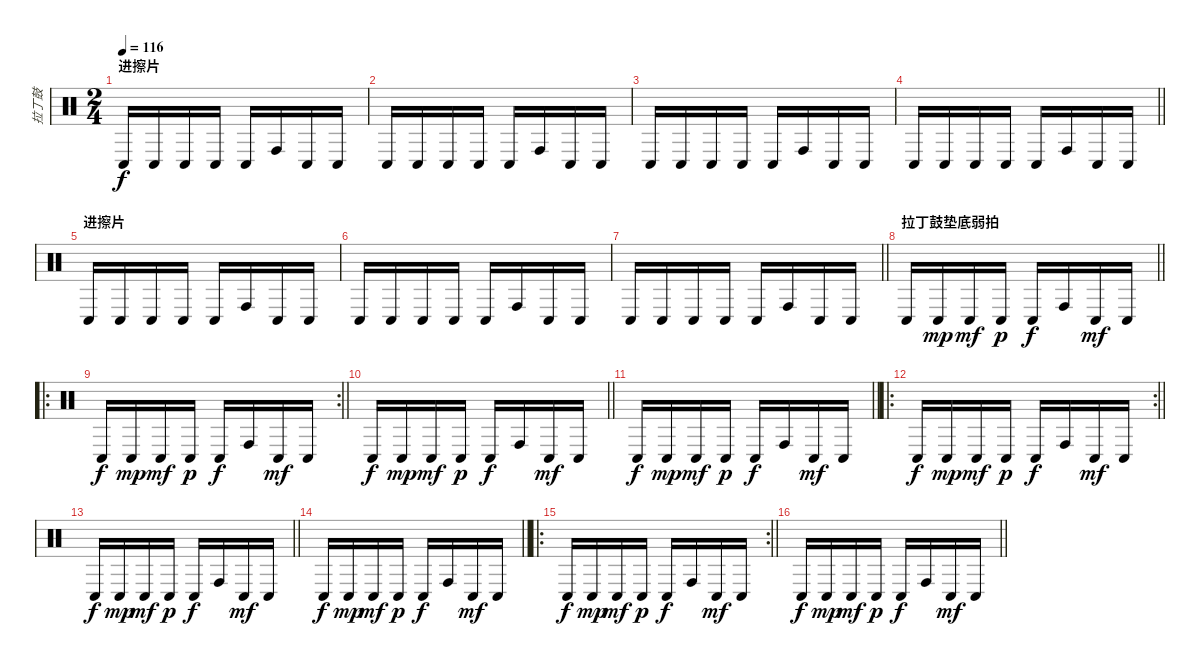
\track ("拉丁鼓" "拉丁鼓") {instrument percussion}
\staff {score}
\articulation defaults
\ts (2 4)
\section ("" "进擦片")
\tempo 116
\clef neutral
\ks c "Conga low (hit)".16{dy f} "Conga low (hit)".16 "Conga low (hit)".16 "Conga low (hit)".16 "Conga low (hit)".16 "Conga high (hit)".16 "Conga low (hit)".16 "Conga low (hit)".16
|
"Conga low (hit)".16 "Conga low (hit)".16 "Conga low (hit)".16 "Conga low (hit)".16 "Conga low (hit)".16 "Conga high (hit)".16 "Conga low (hit)".16 "Conga low (hit)".16 |
"Conga low (hit)".16 "Conga low (hit)".16 "Conga low (hit)".16 "Conga low (hit)".16 "Conga low (hit)".16 "Conga high (hit)".16 "Conga low (hit)".16 "Conga low (hit)".16 |
\barLineRight lightlight "Conga low (hit)".16 "Conga low (hit)".16 "Conga low (hit)".16 "Conga low (hit)".16 "Conga low (hit)".16 "Conga high (hit)".16 "Conga low (hit)".16 "Conga low (hit)".16
|
\section ("" "进擦片")
"Conga low (hit)".16 "Conga low (hit)".16 "Conga low (hit)".16 "Conga low (hit)".16 "Conga low (hit)".16 "Conga high (hit)".16 "Conga low (hit)".16 "Conga low (hit)".16 |
"Conga low (hit)".16 "Conga low (hit)".16 "Conga low (hit)".16 "Conga low (hit)".16 "Conga low (hit)".16 "Conga high (hit)".16 "Conga low (hit)".16 "Conga low (hit)".16 |
\barLineRight lightlight "Conga low (hit)".16 "Conga low (hit)".16 "Conga low (hit)".16 "Conga low (hit)".16 "Conga low (hit)".16 "Conga high (hit)".16 "Conga low (hit)".16 "Conga low (hit)".16
|
\section ("" "拉丁鼓垫底弱拍")
\barLineRight lightlight "Conga low (hit)".16 "Conga low (hit)".16{dy mp} "Conga low (hit)".16{dy mf} "Conga low (hit)".16{dy p} "Conga low (hit)".16{dy f} "Conga high (hit)".16 "Conga low (hit)".16{dy mf} "Conga low (hit)".16
|
\ro
\rc 2
\barLineRight lightlight "Conga low (hit)".16{dy f} "Conga low (hit)".16{dy mp} "Conga low (hit)".16{dy mf} "Conga low (hit)".16{dy p} "Conga low (hit)".16{dy f} "Conga high (hit)".16 "Conga low (hit)".16{dy mf} "Conga low (hit)".16
|
\barLineRight lightlight "Conga low (hit)".16{dy f} "Conga low (hit)".16{dy mp} "Conga low (hit)".16{dy mf} "Conga low (hit)".16{dy p} "Conga low (hit)".16{dy f} "Conga high (hit)".16 "Conga low (hit)".16{dy mf} "Conga low (hit)".16
|
\barLineRight lightlight "Conga low (hit)".16{dy f} "Conga low (hit)".16{dy mp} "Conga low (hit)".16{dy mf} "Conga low (hit)".16{dy p} "Conga low (hit)".16{dy f} "Conga high (hit)".16 "Conga low (hit)".16{dy mf} "Conga low (hit)".16
|
\ro
\rc 2
\barLineRight lightlight "Conga low (hit)".16{dy f} "Conga low (hit)".16{dy mp} "Conga low (hit)".16{dy mf} "Conga low (hit)".16{dy p} "Conga low (hit)".16{dy f} "Conga high (hit)".16 "Conga low (hit)".16{dy mf} "Conga low (hit)".16
|
\barLineRight lightlight "Conga low (hit)".16{dy f} "Conga low (hit)".16{dy mp} "Conga low (hit)".16{dy mf} "Conga low (hit)".16{dy p} "Conga low (hit)".16{dy f} "Conga high (hit)".16 "Conga low (hit)".16{dy mf} "Conga low (hit)".16
|
\barLineRight lightlight "Conga low (hit)".16{dy f} "Conga low (hit)".16{dy mp} "Conga low (hit)".16{dy mf} "Conga low (hit)".16{dy p} "Conga low (hit)".16{dy f} "Conga high (hit)".16 "Conga low (hit)".16{dy mf} "Conga low (hit)".16
|
\ro
\rc 2
\barLineRight lightlight "Conga low (hit)".16{dy f} "Conga low (hit)".16{dy mp} "Conga low (hit)".16{dy mf} "Conga low (hit)".16{dy p} "Conga low (hit)".16{dy f} "Conga high (hit)".16 "Conga low (hit)".16{dy mf} "Conga low (hit)".16
|
\barLineRight lightlight "Conga low (hit)".16{dy f} "Conga low (hit)".16{dy mp} "Conga low (hit)".16{dy mf} "Conga low (hit)".16{dy p} "Conga low (hit)".16{dy f} "Conga high (hit)".16 "Conga low (hit)".16{dy mf} "Conga low (hit)".16
